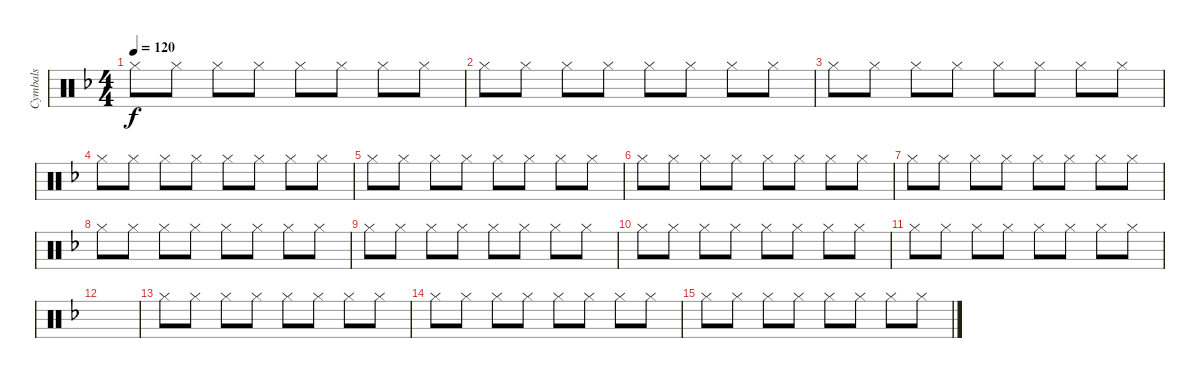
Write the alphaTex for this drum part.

\track ("Cymbals" "Cymbals") {instrument percussion}
\staff {score}
\articulation defaults
\ts (4 4)
\tempo 120
\clef neutral
\ks dminor "Hi-Hat (closed)".8{dy f} "Hi-Hat (closed)".8 "Hi-Hat (closed)".8 "Hi-Hat (closed)".8 "Hi-Hat (closed)".8 "Hi-Hat (closed)".8 "Hi-Hat (closed)".8 "Hi-Hat (closed)".8
|
"Hi-Hat (closed)".8 "Hi-Hat (closed)".8 "Hi-Hat (closed)".8 "Hi-Hat (closed)".8 "Hi-Hat (closed)".8 "Hi-Hat (closed)".8 "Hi-Hat (closed)".8 "Hi-Hat (closed)".8 |
"Hi-Hat (closed)".8 "Hi-Hat (closed)".8 "Hi-Hat (closed)".8 "Hi-Hat (closed)".8 "Hi-Hat (closed)".8 "Hi-Hat (closed)".8 "Hi-Hat (closed)".8 "Hi-Hat (closed)".8 |
"Hi-Hat (closed)".8 "Hi-Hat (closed)".8 "Hi-Hat (closed)".8 "Hi-Hat (closed)".8 "Hi-Hat (closed)".8 "Hi-Hat (closed)".8 "Hi-Hat (closed)".8 "Hi-Hat (closed)".8 |
"Hi-Hat (closed)".8 "Hi-Hat (closed)".8 "Hi-Hat (closed)".8 "Hi-Hat (closed)".8 "Hi-Hat (closed)".8 "Hi-Hat (closed)".8 "Hi-Hat (closed)".8 "Hi-Hat (closed)".8 |
"Hi-Hat (closed)".8 "Hi-Hat (closed)".8 "Hi-Hat (closed)".8 "Hi-Hat (closed)".8 "Hi-Hat (closed)".8 "Hi-Hat (closed)".8 "Hi-Hat (closed)".8 "Hi-Hat (closed)".8 |
"Hi-Hat (closed)".8 "Hi-Hat (closed)".8 "Hi-Hat (closed)".8 "Hi-Hat (closed)".8 "Hi-Hat (closed)".8 "Hi-Hat (closed)".8 "Hi-Hat (closed)".8 "Hi-Hat (closed)".8 |
"Hi-Hat (closed)".8 "Hi-Hat (closed)".8 "Hi-Hat (closed)".8 "Hi-Hat (closed)".8 "Hi-Hat (closed)".8 "Hi-Hat (closed)".8 "Hi-Hat (closed)".8 "Hi-Hat (closed)".8 |
"Hi-Hat (closed)".8 "Hi-Hat (closed)".8 "Hi-Hat (closed)".8 "Hi-Hat (closed)".8 "Hi-Hat (closed)".8 "Hi-Hat (closed)".8 "Hi-Hat (closed)".8 "Hi-Hat (closed)".8 |
"Hi-Hat (closed)".8 "Hi-Hat (closed)".8 "Hi-Hat (closed)".8 "Hi-Hat (closed)".8 "Hi-Hat (closed)".8 "Hi-Hat (closed)".8 "Hi-Hat (closed)".8 "Hi-Hat (closed)".8 |
"Hi-Hat (closed)".8 "Hi-Hat (closed)".8 "Hi-Hat (closed)".8 "Hi-Hat (closed)".8 "Hi-Hat (closed)".8 "Hi-Hat (closed)".8 "Hi-Hat (closed)".8 "Hi-Hat (closed)".8 |
|
"Hi-Hat (closed)".8 "Hi-Hat (closed)".8 "Hi-Hat (closed)".8 "Hi-Hat (closed)".8 "Hi-Hat (closed)".8 "Hi-Hat (closed)".8 "Hi-Hat (closed)".8 "Hi-Hat (closed)".8 |
"Hi-Hat (closed)".8 "Hi-Hat (closed)".8 "Hi-Hat (closed)".8 "Hi-Hat (closed)".8 "Hi-Hat (closed)".8 "Hi-Hat (closed)".8 "Hi-Hat (closed)".8 "Hi-Hat (closed)".8 |
"Hi-Hat (closed)".8 "Hi-Hat (closed)".8 "Hi-Hat (closed)".8 "Hi-Hat (closed)".8 "Hi-Hat (closed)".8 "Hi-Hat (closed)".8 "Hi-Hat (closed)".8 "Hi-Hat (closed)".8
